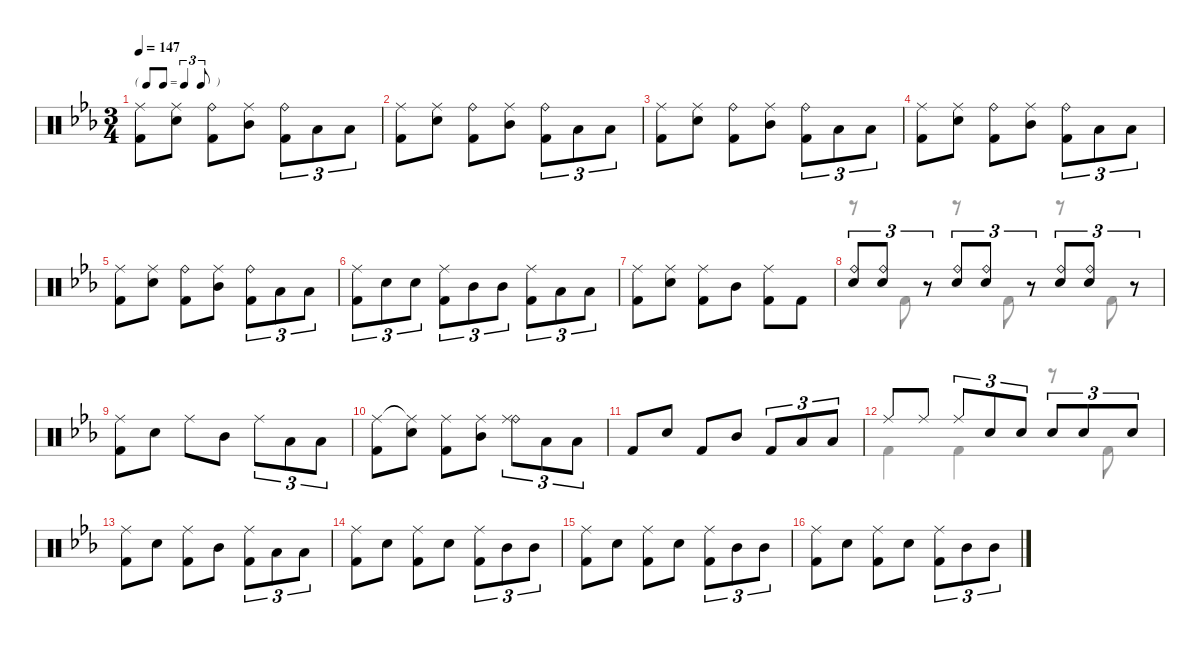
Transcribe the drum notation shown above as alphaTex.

\defaultSystemsLayout 4
\hideDynamics
\bracketExtendMode nobrackets
\singleTrackTrackNamePolicy hidden
\multiTrackTrackNamePolicy hidden
\firstSystemTrackNameMode fullname
\firstSystemTrackNameOrientation horizontal
\otherSystemsTrackNameOrientation horizontal
\track ("Percussion" "drm.") {defaultSystemsLayout 8 instrument percussion}
\staff {score}
\articulation defaults
\voice
\ts (3 4)
\tf triplet8th
\tempo 147
\clef neutral
\ks eb
("Ride (middle)"{acc forcenatural} "Kick (hit) 2"{acc forcenatural}).8{dy f beam Down} ("Ride (middle)"{acc forcenatural} "Snare (hit) 2"{acc forcenatural}).8{beam Down} ("Ride (bell)"{acc forcenatural} "Kick (hit) 2"{acc forcenatural}).8{beam Down} ("Ride (middle)"{acc forcenatural} "Mid Tom (hit)"{acc forcenatural}).8{beam Down} ("Ride (bell)"{acc forcenatural} "Kick (hit) 2"{acc forcenatural}).8{tu (3 2) beam Down} "Low Floor Tom (hit)"{acc forcenatural}.8{tu (3 2) beam Down} "Low Floor Tom (hit)"{acc forcenatural}.8{tu (3 2) beam Down} |
("Ride (middle)"{acc forcenatural} "Kick (hit) 2"{acc forcenatural}).8{beam Down} ("Ride (middle)"{acc forcenatural} "Snare (hit) 2"{acc forcenatural}).8{beam Down} ("Ride (bell)"{acc forcenatural} "Kick (hit) 2"{acc forcenatural}).8{beam Down} ("Ride (middle)"{acc forcenatural} "Mid Tom (hit)"{acc forcenatural}).8{beam Down} ("Ride (bell)"{acc forcenatural} "Kick (hit) 2"{acc forcenatural}).8{tu (3 2) beam Down} "Low Floor Tom (hit)"{acc forcenatural}.8{tu (3 2) beam Down} "Low Floor Tom (hit)"{acc forcenatural}.8{tu (3 2) beam Down} |
("Ride (middle)"{acc forcenatural} "Kick (hit) 2"{acc forcenatural}).8{beam Down} ("Ride (middle)"{acc forcenatural} "Snare (hit) 2"{acc forcenatural}).8{beam Down} ("Ride (bell)"{acc forcenatural} "Kick (hit) 2"{acc forcenatural}).8{beam Down} ("Ride (middle)"{acc forcenatural} "Mid Tom (hit)"{acc forcenatural}).8{beam Down} ("Ride (bell)"{acc forcenatural} "Kick (hit) 2"{acc forcenatural}).8{tu (3 2) beam Down} "Low Floor Tom (hit)"{acc forcenatural}.8{tu (3 2) beam Down} "Low Floor Tom (hit)"{acc forcenatural}.8{tu (3 2) beam Down} |
("Ride (middle)"{acc forcenatural} "Kick (hit) 2"{acc forcenatural}).8{beam Down} ("Ride (middle)"{acc forcenatural} "Snare (hit) 2"{acc forcenatural}).8{beam Down} ("Ride (bell)"{acc forcenatural} "Kick (hit) 2"{acc forcenatural}).8{beam Down} ("Ride (middle)"{acc forcenatural} "Mid Tom (hit)"{acc forcenatural}).8{beam Down} ("Ride (bell)"{acc forcenatural} "Kick (hit) 2"{acc forcenatural}).8{tu (3 2) beam Down} "Low Floor Tom (hit)"{acc forcenatural}.8{tu (3 2) beam Down} "Low Floor Tom (hit)"{acc forcenatural}.8{tu (3 2) beam Down} |
("Ride (middle)"{acc forcenatural} "Kick (hit) 2"{acc forcenatural}).8{beam Down} ("Ride (middle)"{acc forcenatural} "Snare (hit) 2"{acc forcenatural}).8{beam Down} ("Ride (bell)"{acc forcenatural} "Kick (hit) 2"{acc forcenatural}).8{beam Down} ("Ride (middle)"{acc forcenatural} "Mid Tom (hit)"{acc forcenatural}).8{beam Down} ("Ride (bell)"{acc forcenatural} "Kick (hit) 2"{acc forcenatural}).8{tu (3 2) beam Down} "Low Floor Tom (hit)"{acc forcenatural}.8{tu (3 2) beam Down} "Low Floor Tom (hit)"{acc forcenatural}.8{tu (3 2) beam Down} |
("Ride (middle)"{acc forcenatural} "Kick (hit) 2"{acc forcenatural}).8{tu (3 2) beam Down} "Snare (hit) 2"{acc forcenatural}.8{tu (3 2) beam Down} "Snare (hit) 2"{acc forcenatural}.8{tu (3 2) beam Down} ("Ride (middle)"{acc forcenatural} "Kick (hit) 2"{acc forcenatural}).8{tu (3 2) beam Down} "Mid Tom (hit)"{acc forcenatural}.8{tu (3 2) beam Down} "Mid Tom (hit)"{acc forcenatural}.8{tu (3 2) beam Down} ("Ride (middle)"{acc forcenatural} "Kick (hit) 2"{acc forcenatural}).8{tu (3 2) beam Down} "Low Tom (hit)"{acc forcenatural}.8{tu (3 2) beam Down} "Low Tom (hit)"{acc forcenatural}.8{tu (3 2) beam Down} |
("Ride (middle)"{acc forcenatural} "Kick (hit) 2"{acc forcenatural}).8{beam Down} ("Ride (middle)"{acc forcenatural} "Snare (hit) 2"{acc forcenatural}).8{beam Down} ("Ride (middle)"{acc forcenatural} "Kick (hit) 2"{acc forcenatural}).8{beam Down} "Mid Tom (hit)"{acc forcenatural}.8{beam Down} ("Ride (middle)"{acc forcenatural} "Kick (hit) 2"{acc forcenatural}).8{beam Down} "Kick (hit) 2"{acc forcenatural}.8{beam Down} |
("Ride (bell)"{acc forcenatural} "Snare (hit) 2"{acc forcenatural}).8{tu (3 2) beam Up} ("Ride (bell)"{acc forcenatural} "Snare (hit) 2"{acc forcenatural}).8{tu (3 2) beam Up} r.8{tu (3 2) beam Up} ("Ride (bell)"{acc forcenatural} "Snare (hit) 2"{acc forcenatural}).8{tu (3 2) beam Up} ("Ride (bell)"{acc forcenatural} "Snare (hit) 2"{acc forcenatural}).8{tu (3 2) beam Up} r.8{tu (3 2) beam Up} ("Ride (bell)"{acc forcenatural} "Snare (hit) 2"{acc forcenatural}).8{tu (3 2) beam Up} ("Ride (bell)"{acc forcenatural} "Snare (hit) 2"{acc forcenatural}).8{tu (3 2) beam Up} r.8{tu (3 2) beam Up} |
("Ride (middle)"{acc forcenatural} "Kick (hit) 2"{acc forcenatural}).8{beam Down} "Snare (hit) 2"{acc forcenatural}.8{beam Down} "Ride (middle)"{acc forcenatural}.8{beam Down} "Mid Tom (hit)"{acc forcenatural}.8{beam Down} "Ride (middle)"{acc forcenatural}.8{tu (3 2) beam Down} "Low Floor Tom (hit)"{acc forcenatural}.8{tu (3 2) beam Down} "Low Floor Tom (hit)"{acc forcenatural}.8{tu (3 2) beam Down} |
("Ride (middle)"{acc forcenatural} "Kick (hit) 2"{acc forcenatural}).8{beam Down} ("Ride (middle)"{t acc forcenatural} "Snare (hit) 2"{acc forcenatural}).8{beam Down} ("Ride (middle)"{acc forcenatural} "Kick (hit) 2"{acc forcenatural}).8{beam Down} ("Ride (middle)"{acc forcenatural} "Mid Tom (hit)"{acc forcenatural}).8{beam Down} ("Ride (bell)"{acc forcenatural} "Ride (middle)"{acc forcenatural}).8{tu (3 2) beam Down} "Low Floor Tom (hit)"{acc forcenatural}.8{tu (3 2) beam Down} "Low Floor Tom (hit)"{acc forcenatural}.8{tu (3 2) beam Down} |
"Kick (hit) 2"{acc forcenatural}.8{beam Up} "Snare (hit) 2"{acc forcenatural}.8{beam Up} "Kick (hit) 2"{acc forcenatural}.8{beam Up} "Mid Tom (hit)"{acc forcenatural}.8{beam Up} "Kick (hit) 2"{acc forcenatural}.8{tu (3 2) beam Up} "Low Floor Tom (hit)"{acc forcenatural}.8{tu (3 2) beam Up} "Low Floor Tom (hit)"{acc forcenatural}.8{tu (3 2) beam Up} |
"Ride (middle)"{acc forcenatural}.8{beam Up} "Ride (middle)"{acc forcenatural}.8{beam Up} "Ride (middle)"{acc forcenatural}.8{tu (3 2) beam Up} "Snare (hit) 2"{acc forcenatural}.8{tu (3 2) beam Up} "Snare (hit) 2"{acc forcenatural}.8{tu (3 2) beam Up} "Snare (hit) 2"{acc forcenatural}.8{tu (3 2) beam Up} "Snare (hit) 2"{acc forcenatural}.8{tu (3 2) beam Up} "Snare (hit) 2"{acc forcenatural}.8{tu (3 2) beam Up} |
("Ride (middle)"{acc forcenatural} "Kick (hit) 2"{acc forcenatural}).8{beam Down} "Snare (hit) 2"{acc forcenatural}.8{beam Down} ("Ride (middle)"{acc forcenatural} "Kick (hit) 2"{acc forcenatural}).8{beam Down} "Mid Tom (hit)"{acc forcenatural}.8{beam Down} ("Ride (middle)"{acc forcenatural} "Kick (hit) 2"{acc forcenatural}).8{tu (3 2) beam Down} "Low Floor Tom (hit)"{acc forcenatural}.8{tu (3 2) beam Down} "Low Floor Tom (hit)"{acc forcenatural}.8{tu (3 2) beam Down} |
("Ride (middle)"{acc forcenatural} "Kick (hit) 2"{acc forcenatural}).8{beam Down} "Snare (hit) 2"{acc forcenatural}.8{beam Down} ("Ride (middle)"{acc forcenatural} "Kick (hit) 2"{acc forcenatural}).8{beam Down} "Snare (hit) 2"{acc forcenatural}.8{beam Down} ("Ride (middle)"{acc forcenatural} "Kick (hit) 2"{acc forcenatural}).8{tu (3 2) beam Down} "Mid Tom (hit)"{acc forcenatural}.8{tu (3 2) beam Down} "Mid Tom (hit)"{acc forcenatural}.8{tu (3 2) beam Down} |
("Ride (middle)"{acc forcenatural} "Kick (hit) 2"{acc forcenatural}).8{beam Down} "Snare (hit) 2"{acc forcenatural}.8{beam Down} ("Ride (middle)"{acc forcenatural} "Kick (hit) 2"{acc forcenatural}).8{beam Down} "Snare (hit) 2"{acc forcenatural}.8{beam Down} ("Ride (middle)"{acc forcenatural} "Kick (hit) 2"{acc forcenatural}).8{tu (3 2) beam Down} "Mid Tom (hit)"{acc forcenatural}.8{tu (3 2) beam Down} "Mid Tom (hit)"{acc forcenatural}.8{tu (3 2) beam Down} |
("Ride (middle)"{acc forcenatural} "Kick (hit) 2"{acc forcenatural}).8{beam Down} "Snare (hit) 2"{acc forcenatural}.8{beam Down} ("Ride (middle)"{acc forcenatural} "Kick (hit) 2"{acc forcenatural}).8{beam Down} "Snare (hit) 2"{acc forcenatural}.8{beam Down} ("Ride (middle)"{acc forcenatural} "Kick (hit) 2"{acc forcenatural}).8{tu (3 2) beam Down} "Mid Tom (hit)"{acc forcenatural}.8{tu (3 2) beam Down} "Mid Tom (hit)"{acc forcenatural}.8{tu (3 2) beam Down}
\voice
\clef neutral
\ottava regular
\simile none
\ks eb
|
|
|
|
|
|
|
r.8{beam Down} "Kick (hit) 2"{acc forcenatural}.8{beam Down} r.8{beam Down} "Kick (hit) 2"{acc forcenatural}.8{beam Down} r.8{beam Down} "Kick (hit) 2"{acc forcenatural}.8{beam Down} |
|
|
|
"Kick (hit) 2"{acc forcenatural}.4{beam Down} "Kick (hit) 2"{acc forcenatural}.4{beam Down} r.8{beam Down} "Kick (hit) 2"{acc forcenatural}.8{beam Down} |
|
|
|
